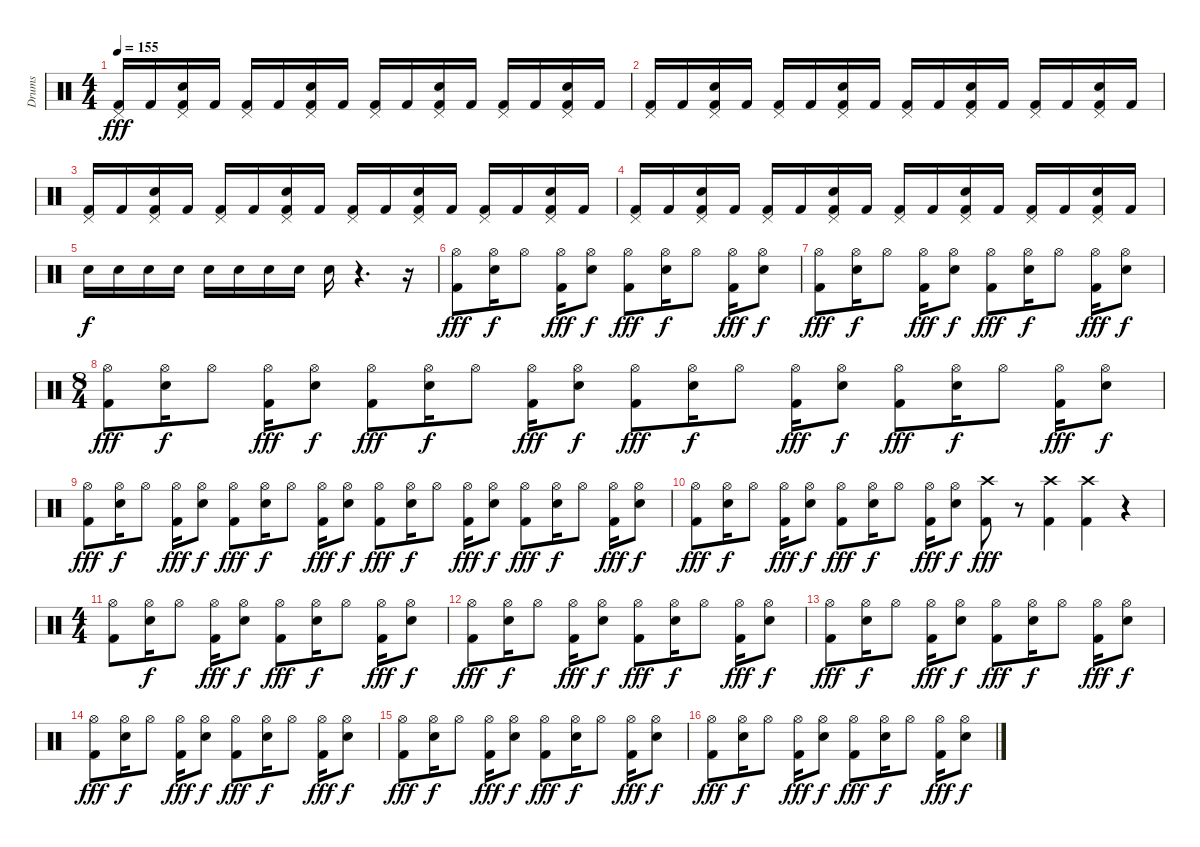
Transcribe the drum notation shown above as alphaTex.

\track ("Drums" "Drums") {instrument percussion}
\staff {score}
\articulation defaults
\ts (4 4)
\tempo 155
\clef neutral
\ks c
("Kick (hit) 2" "Pedal Hi-Hat (hit)").16{dy fff} "Kick (hit) 2".16 ("Kick (hit) 2" "Electric Snare (hit)" "Pedal Hi-Hat (hit)").16 "Kick (hit) 2".16 ("Kick (hit) 2" "Pedal Hi-Hat (hit)").16 "Kick (hit) 2".16 ("Kick (hit) 2" "Electric Snare (hit)" "Pedal Hi-Hat (hit)").16 "Kick (hit) 2".16 ("Kick (hit) 2" "Pedal Hi-Hat (hit)").16 "Kick (hit) 2".16 ("Kick (hit) 2" "Electric Snare (hit)" "Pedal Hi-Hat (hit)").16 "Kick (hit) 2".16 ("Kick (hit) 2" "Pedal Hi-Hat (hit)").16 "Kick (hit) 2".16 ("Kick (hit) 2" "Electric Snare (hit)" "Pedal Hi-Hat (hit)").16 "Kick (hit) 2".16 |
("Kick (hit) 2" "Pedal Hi-Hat (hit)").16 "Kick (hit) 2".16 ("Kick (hit) 2" "Electric Snare (hit)" "Pedal Hi-Hat (hit)").16 "Kick (hit) 2".16 ("Kick (hit) 2" "Pedal Hi-Hat (hit)").16 "Kick (hit) 2".16 ("Kick (hit) 2" "Electric Snare (hit)" "Pedal Hi-Hat (hit)").16 "Kick (hit) 2".16 ("Kick (hit) 2" "Pedal Hi-Hat (hit)").16 "Kick (hit) 2".16 ("Kick (hit) 2" "Electric Snare (hit)" "Pedal Hi-Hat (hit)").16 "Kick (hit) 2".16 ("Kick (hit) 2" "Pedal Hi-Hat (hit)").16 "Kick (hit) 2".16 ("Kick (hit) 2" "Electric Snare (hit)" "Pedal Hi-Hat (hit)").16 "Kick (hit) 2".16 |
("Kick (hit) 2" "Pedal Hi-Hat (hit)").16 "Kick (hit) 2".16 ("Kick (hit) 2" "Electric Snare (hit)" "Pedal Hi-Hat (hit)").16 "Kick (hit) 2".16 ("Kick (hit) 2" "Pedal Hi-Hat (hit)").16 "Kick (hit) 2".16 ("Kick (hit) 2" "Electric Snare (hit)" "Pedal Hi-Hat (hit)").16 "Kick (hit) 2".16 ("Kick (hit) 2" "Pedal Hi-Hat (hit)").16 "Kick (hit) 2".16 ("Kick (hit) 2" "Electric Snare (hit)" "Pedal Hi-Hat (hit)").16 "Kick (hit) 2".16 ("Kick (hit) 2" "Pedal Hi-Hat (hit)").16 "Kick (hit) 2".16 ("Kick (hit) 2" "Electric Snare (hit)" "Pedal Hi-Hat (hit)").16 "Kick (hit) 2".16 |
("Kick (hit) 2" "Pedal Hi-Hat (hit)").16 "Kick (hit) 2".16 ("Kick (hit) 2" "Electric Snare (hit)" "Pedal Hi-Hat (hit)").16 "Kick (hit) 2".16 ("Kick (hit) 2" "Pedal Hi-Hat (hit)").16 "Kick (hit) 2".16 ("Kick (hit) 2" "Electric Snare (hit)" "Pedal Hi-Hat (hit)").16 "Kick (hit) 2".16 ("Kick (hit) 2" "Pedal Hi-Hat (hit)").16 "Kick (hit) 2".16 ("Kick (hit) 2" "Electric Snare (hit)" "Pedal Hi-Hat (hit)").16 "Kick (hit) 2".16 ("Kick (hit) 2" "Pedal Hi-Hat (hit)").16 "Kick (hit) 2".16 ("Kick (hit) 2" "Electric Snare (hit)" "Pedal Hi-Hat (hit)").16 "Kick (hit) 2".16 |
"Electric Snare (hit)".16{dy f} "Electric Snare (hit)".16 "Electric Snare (hit)".16 "Electric Snare (hit)".16 "Electric Snare (hit)".16 "Electric Snare (hit)".16 "Electric Snare (hit)".16 "Electric Snare (hit)".16 "Electric Snare (hit)".16 r.4{d} r.16 |
("Kick (hit) 2" "Hi-Hat (open)").8{dy fff} ("Electric Snare (hit)" "Hi-Hat (open)").16{dy f} "Hi-Hat (open)".8 ("Kick (hit) 2" "Hi-Hat (open)").16{dy fff} ("Electric Snare (hit)" "Hi-Hat (open)").8{dy f} ("Kick (hit) 2" "Hi-Hat (open)").8{dy fff} ("Electric Snare (hit)" "Hi-Hat (open)").16{dy f} "Hi-Hat (open)".8 ("Kick (hit) 2" "Hi-Hat (open)").16{dy fff} ("Electric Snare (hit)" "Hi-Hat (open)").8{dy f} |
("Kick (hit) 2" "Hi-Hat (open)").8{dy fff} ("Electric Snare (hit)" "Hi-Hat (open)").16{dy f} "Hi-Hat (open)".8 ("Kick (hit) 2" "Hi-Hat (open)").16{dy fff} ("Electric Snare (hit)" "Hi-Hat (open)").8{dy f} ("Kick (hit) 2" "Hi-Hat (open)").8{dy fff} ("Electric Snare (hit)" "Hi-Hat (open)").16{dy f} "Hi-Hat (open)".8 ("Kick (hit) 2" "Hi-Hat (open)").16{dy fff} ("Electric Snare (hit)" "Hi-Hat (open)").8{dy f} |
\ts (8 4)
("Kick (hit) 2" "Hi-Hat (open)").8{dy fff} ("Electric Snare (hit)" "Hi-Hat (open)").16{dy f} "Hi-Hat (open)".8 ("Kick (hit) 2" "Hi-Hat (open)").16{dy fff} ("Electric Snare (hit)" "Hi-Hat (open)").8{dy f} ("Kick (hit) 2" "Hi-Hat (open)").8{dy fff} ("Electric Snare (hit)" "Hi-Hat (open)").16{dy f} "Hi-Hat (open)".8 ("Kick (hit) 2" "Hi-Hat (open)").16{dy fff} ("Electric Snare (hit)" "Hi-Hat (open)").8{dy f} ("Kick (hit) 2" "Hi-Hat (open)").8{dy fff} ("Electric Snare (hit)" "Hi-Hat (open)").16{dy f} "Hi-Hat (open)".8 ("Kick (hit) 2" "Hi-Hat (open)").16{dy fff} ("Electric Snare (hit)" "Hi-Hat (open)").8{dy f} ("Kick (hit) 2" "Hi-Hat (open)").8{dy fff} ("Electric Snare (hit)" "Hi-Hat (open)").16{dy f} "Hi-Hat (open)".8 ("Kick (hit) 2" "Hi-Hat (open)").16{dy fff} ("Electric Snare (hit)" "Hi-Hat (open)").8{dy f} |
("Kick (hit) 2" "Hi-Hat (open)").8{dy fff} ("Electric Snare (hit)" "Hi-Hat (open)").16{dy f} "Hi-Hat (open)".8 ("Kick (hit) 2" "Hi-Hat (open)").16{dy fff} ("Electric Snare (hit)" "Hi-Hat (open)").8{dy f} ("Kick (hit) 2" "Hi-Hat (open)").8{dy fff} ("Electric Snare (hit)" "Hi-Hat (open)").16{dy f} "Hi-Hat (open)".8 ("Kick (hit) 2" "Hi-Hat (open)").16{dy fff} ("Electric Snare (hit)" "Hi-Hat (open)").8{dy f} ("Kick (hit) 2" "Hi-Hat (open)").8{dy fff} ("Electric Snare (hit)" "Hi-Hat (open)").16{dy f} "Hi-Hat (open)".8 ("Kick (hit) 2" "Hi-Hat (open)").16{dy fff} ("Electric Snare (hit)" "Hi-Hat (open)").8{dy f} ("Kick (hit) 2" "Hi-Hat (open)").8{dy fff} ("Electric Snare (hit)" "Hi-Hat (open)").16{dy f} "Hi-Hat (open)".8 ("Kick (hit) 2" "Hi-Hat (open)").16{dy fff} ("Electric Snare (hit)" "Hi-Hat (open)").8{dy f} |
("Kick (hit) 2" "Hi-Hat (open)").8{dy fff} ("Electric Snare (hit)" "Hi-Hat (open)").16{dy f} "Hi-Hat (open)".8 ("Kick (hit) 2" "Hi-Hat (open)").16{dy fff} ("Electric Snare (hit)" "Hi-Hat (open)").8{dy f} ("Kick (hit) 2" "Hi-Hat (open)").8{dy fff} ("Electric Snare (hit)" "Hi-Hat (open)").16{dy f} "Hi-Hat (open)".8 ("Kick (hit) 2" "Hi-Hat (open)").16{dy fff} ("Electric Snare (hit)" "Hi-Hat (open)").8{dy f} ("Kick (hit) 2" "Crash high (hit)").8{dy fff} r.8 ("Kick (hit) 2" "Crash high (hit)").4 ("Kick (hit) 2" "Crash high (hit)").4 r.4 |
\ts (4 4)
("Kick (hit) 2" "Hi-Hat (open)").8 ("Electric Snare (hit)" "Hi-Hat (open)").16{dy f} "Hi-Hat (open)".8 ("Kick (hit) 2" "Hi-Hat (open)").16{dy fff} ("Electric Snare (hit)" "Hi-Hat (open)").8{dy f} ("Kick (hit) 2" "Hi-Hat (open)").8{dy fff} ("Electric Snare (hit)" "Hi-Hat (open)").16{dy f} "Hi-Hat (open)".8 ("Kick (hit) 2" "Hi-Hat (open)").16{dy fff} ("Electric Snare (hit)" "Hi-Hat (open)").8{dy f} |
("Kick (hit) 2" "Hi-Hat (open)").8{dy fff} ("Electric Snare (hit)" "Hi-Hat (open)").16{dy f} "Hi-Hat (open)".8 ("Kick (hit) 2" "Hi-Hat (open)").16{dy fff} ("Electric Snare (hit)" "Hi-Hat (open)").8{dy f} ("Kick (hit) 2" "Hi-Hat (open)").8{dy fff} ("Electric Snare (hit)" "Hi-Hat (open)").16{dy f} "Hi-Hat (open)".8 ("Kick (hit) 2" "Hi-Hat (open)").16{dy fff} ("Electric Snare (hit)" "Hi-Hat (open)").8{dy f} |
("Kick (hit) 2" "Hi-Hat (open)").8{dy fff} ("Electric Snare (hit)" "Hi-Hat (open)").16{dy f} "Hi-Hat (open)".8 ("Kick (hit) 2" "Hi-Hat (open)").16{dy fff} ("Electric Snare (hit)" "Hi-Hat (open)").8{dy f} ("Kick (hit) 2" "Hi-Hat (open)").8{dy fff} ("Electric Snare (hit)" "Hi-Hat (open)").16{dy f} "Hi-Hat (open)".8 ("Kick (hit) 2" "Hi-Hat (open)").16{dy fff} ("Electric Snare (hit)" "Hi-Hat (open)").8{dy f} |
("Kick (hit) 2" "Hi-Hat (open)").8{dy fff} ("Electric Snare (hit)" "Hi-Hat (open)").16{dy f} "Hi-Hat (open)".8 ("Kick (hit) 2" "Hi-Hat (open)").16{dy fff} ("Electric Snare (hit)" "Hi-Hat (open)").8{dy f} ("Kick (hit) 2" "Hi-Hat (open)").8{dy fff} ("Electric Snare (hit)" "Hi-Hat (open)").16{dy f} "Hi-Hat (open)".8 ("Kick (hit) 2" "Hi-Hat (open)").16{dy fff} ("Electric Snare (hit)" "Hi-Hat (open)").8{dy f} |
("Kick (hit) 2" "Hi-Hat (open)").8{dy fff} ("Electric Snare (hit)" "Hi-Hat (open)").16{dy f} "Hi-Hat (open)".8 ("Kick (hit) 2" "Hi-Hat (open)").16{dy fff} ("Electric Snare (hit)" "Hi-Hat (open)").8{dy f} ("Kick (hit) 2" "Hi-Hat (open)").8{dy fff} ("Electric Snare (hit)" "Hi-Hat (open)").16{dy f} "Hi-Hat (open)".8 ("Kick (hit) 2" "Hi-Hat (open)").16{dy fff} ("Electric Snare (hit)" "Hi-Hat (open)").8{dy f} |
("Kick (hit) 2" "Hi-Hat (open)").8{dy fff} ("Electric Snare (hit)" "Hi-Hat (open)").16{dy f} "Hi-Hat (open)".8 ("Kick (hit) 2" "Hi-Hat (open)").16{dy fff} ("Electric Snare (hit)" "Hi-Hat (open)").8{dy f} ("Kick (hit) 2" "Hi-Hat (open)").8{dy fff} ("Electric Snare (hit)" "Hi-Hat (open)").16{dy f} "Hi-Hat (open)".8 ("Kick (hit) 2" "Hi-Hat (open)").16{dy fff} ("Electric Snare (hit)" "Hi-Hat (open)").8{dy f}
